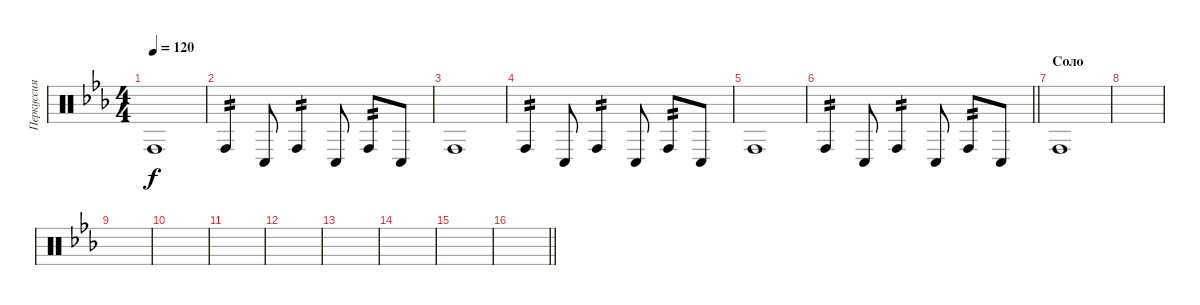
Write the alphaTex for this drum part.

\track ("Перкуссия" "Перкуссия") {instrument percussion}
\staff {score}
\articulation defaults
\ts (4 4)
\tempo 120
\clef neutral
\ks cminor "Conga high (hit)".1{dy f}
|
"Conga high (hit)".4{tp 2} "Conga low (hit)".8 "Conga high (hit)".4{tp 2} "Conga low (hit)".8 "Conga high (hit)".8{tp 2} "Conga low (hit)".8 |
"Conga high (hit)".1 |
"Conga high (hit)".4{tp 2} "Conga low (hit)".8 "Conga high (hit)".4{tp 2} "Conga low (hit)".8 "Conga high (hit)".8{tp 2} "Conga low (hit)".8 |
"Conga high (hit)".1 |
\barLineRight lightlight "Conga high (hit)".4{tp 2} "Conga low (hit)".8 "Conga high (hit)".4{tp 2} "Conga low (hit)".8 "Conga high (hit)".8{tp 2} "Conga low (hit)".8
|
\section ("" "Соло")
"Conga high (hit)".1 |
|
|
|
|
|
|
|
|
\barLineRight lightlight
